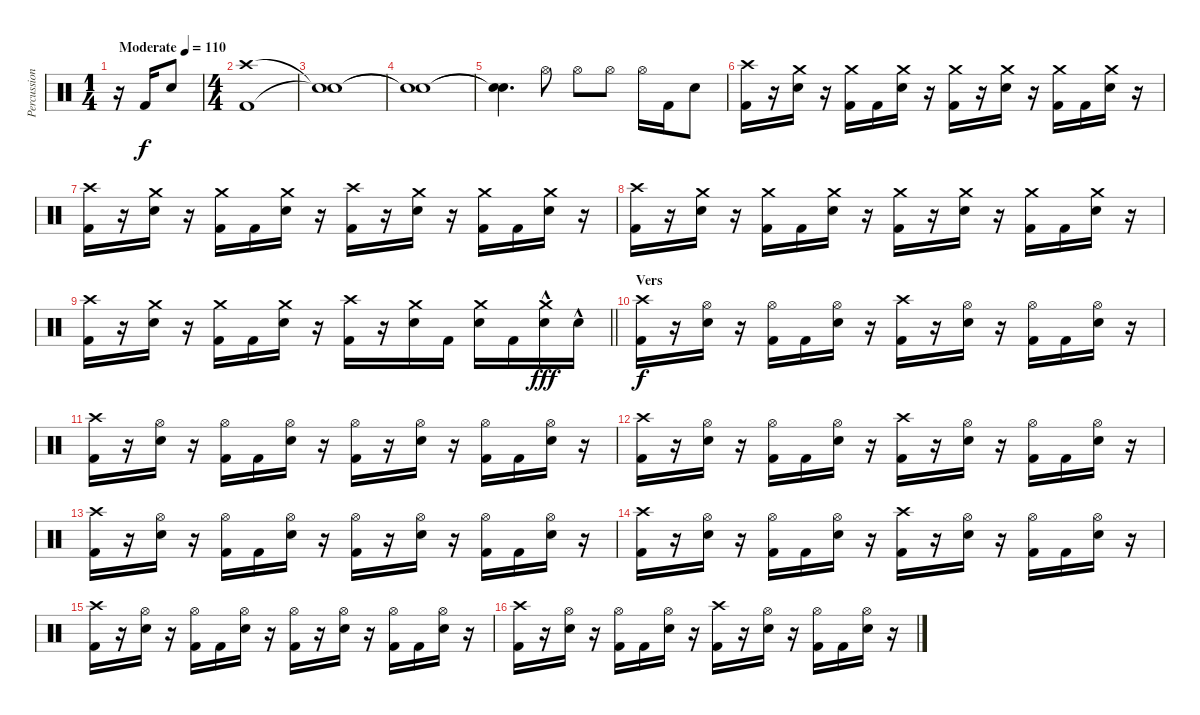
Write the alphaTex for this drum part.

\track ("Percussion" "Percussion") {instrument percussion}
\staff {score}
\articulation defaults
\ts (1 4)
\tempo (110 "Moderate")
\clef neutral
\ks c
r.16{dy f} "Kick (hit) 2".16 "Snare (hit) 2".8 |
\ts (4 4)
("Crash high (hit)" "Kick (hit) 2").1 |
("Snare (hit)"{t} "Snare (hit)"{t}).1 |
("Snare (hit)"{t} "Snare (hit)"{t}).1 |
("Snare (hit)"{t} "Snare (hit)"{t}).4{d} "Hi-Hat (open)".8 "Hi-Hat (open)".8 "Hi-Hat (open)".8 "Hi-Hat (open)".16 "Kick (hit) 2".16 "Snare (hit) 2".8 |
("Crash high (hit)" "Kick (hit) 2").16 r.16 ("Crash medium (hit)" "Snare (hit) 2").16 r.16 ("Crash medium (hit)" "Kick (hit) 2").16 "Kick (hit) 2".16 ("Crash medium (hit)" "Snare (hit) 2").16 r.16 ("Crash medium (hit)" "Kick (hit) 2").16 r.16 ("Crash medium (hit)" "Snare (hit) 2").16 r.16 ("Crash medium (hit)" "Kick (hit) 2").16 "Kick (hit) 2".16 ("Crash medium (hit)" "Snare (hit) 2").16 r.16 |
("Crash high (hit)" "Kick (hit) 2").16 r.16 ("Crash medium (hit)" "Snare (hit) 2").16 r.16 ("Crash medium (hit)" "Kick (hit) 2").16 "Kick (hit) 2".16 ("Crash medium (hit)" "Snare (hit) 2").16 r.16 ("Crash high (hit)" "Kick (hit) 2").16 r.16 ("Crash medium (hit)" "Snare (hit) 2").16 r.16 ("Crash medium (hit)" "Kick (hit) 2").16 "Kick (hit) 2".16 ("Crash medium (hit)" "Snare (hit) 2").16 r.16 |
("Crash high (hit)" "Kick (hit) 2").16 r.16 ("Crash medium (hit)" "Snare (hit) 2").16 r.16 ("Crash medium (hit)" "Kick (hit) 2").16 "Kick (hit) 2".16 ("Crash medium (hit)" "Snare (hit) 2").16 r.16 ("Crash medium (hit)" "Kick (hit) 2").16 r.16 ("Crash medium (hit)" "Snare (hit) 2").16 r.16 ("Crash medium (hit)" "Kick (hit) 2").16 "Kick (hit) 2".16 ("Crash medium (hit)" "Snare (hit) 2").16 r.16 |
\barLineRight lightlight
("Crash high (hit)" "Kick (hit) 2").16 r.16 ("Crash medium (hit)" "Snare (hit) 2").16 r.16 ("Crash medium (hit)" "Kick (hit) 2").16 "Kick (hit) 2".16 ("Crash medium (hit)" "Snare (hit) 2").16 r.16 ("Crash high (hit)" "Kick (hit) 2").16 r.16 ("Crash medium (hit)" "Snare (hit) 2").16 "Kick (hit) 2".16 ("Crash medium (hit)" "Snare (hit) 2").16 "Kick (hit) 2".16 ("Crash medium (hit)" "Snare (hit) 2"{hac}).16{dy fff} "Snare (hit) 2"{hac}.16 |
\section ("" "Vers")
("Crash high (hit)" "Kick (hit) 2").16{dy f} r.16 ("Hi-Hat (open)" "Snare (hit) 2").16 r.16 ("Hi-Hat (open)" "Kick (hit) 2").16 "Kick (hit) 2".16 ("Hi-Hat (open)" "Snare (hit) 2").16 r.16 ("Crash high (hit)" "Kick (hit) 2").16 r.16 ("Hi-Hat (open)" "Snare (hit) 2").16 r.16 ("Hi-Hat (open)" "Kick (hit) 2").16 "Kick (hit) 2".16 ("Hi-Hat (open)" "Snare (hit) 2").16 r.16 |
("Crash high (hit)" "Kick (hit) 2").16 r.16 ("Hi-Hat (open)" "Snare (hit) 2").16 r.16 ("Hi-Hat (open)" "Kick (hit) 2").16 "Kick (hit) 2".16 ("Hi-Hat (open)" "Snare (hit) 2").16 r.16 ("Hi-Hat (open)" "Kick (hit) 2").16 r.16 ("Hi-Hat (open)" "Snare (hit) 2").16 r.16 ("Hi-Hat (open)" "Kick (hit) 2").16 "Kick (hit) 2".16 ("Hi-Hat (open)" "Snare (hit) 2").16 r.16 |
("Crash high (hit)" "Kick (hit) 2").16 r.16 ("Hi-Hat (open)" "Snare (hit) 2").16 r.16 ("Hi-Hat (open)" "Kick (hit) 2").16 "Kick (hit) 2".16 ("Hi-Hat (open)" "Snare (hit) 2").16 r.16 ("Crash high (hit)" "Kick (hit) 2").16 r.16 ("Hi-Hat (open)" "Snare (hit) 2").16 r.16 ("Hi-Hat (open)" "Kick (hit) 2").16 "Kick (hit) 2".16 ("Hi-Hat (open)" "Snare (hit) 2").16 r.16 |
("Crash high (hit)" "Kick (hit) 2").16 r.16 ("Hi-Hat (open)" "Snare (hit) 2").16 r.16 ("Hi-Hat (open)" "Kick (hit) 2").16 "Kick (hit) 2".16 ("Hi-Hat (open)" "Snare (hit) 2").16 r.16 ("Hi-Hat (open)" "Kick (hit) 2").16 r.16 ("Hi-Hat (open)" "Snare (hit) 2").16 r.16 ("Hi-Hat (open)" "Kick (hit) 2").16 "Kick (hit) 2".16 ("Hi-Hat (open)" "Snare (hit) 2").16 r.16 |
("Crash high (hit)" "Kick (hit) 2").16 r.16 ("Hi-Hat (open)" "Snare (hit) 2").16 r.16 ("Hi-Hat (open)" "Kick (hit) 2").16 "Kick (hit) 2".16 ("Hi-Hat (open)" "Snare (hit) 2").16 r.16 ("Crash high (hit)" "Kick (hit) 2").16 r.16 ("Hi-Hat (open)" "Snare (hit) 2").16 r.16 ("Hi-Hat (open)" "Kick (hit) 2").16 "Kick (hit) 2".16 ("Hi-Hat (open)" "Snare (hit) 2").16 r.16 |
("Crash high (hit)" "Kick (hit) 2").16 r.16 ("Hi-Hat (open)" "Snare (hit) 2").16 r.16 ("Hi-Hat (open)" "Kick (hit) 2").16 "Kick (hit) 2".16 ("Hi-Hat (open)" "Snare (hit) 2").16 r.16 ("Hi-Hat (open)" "Kick (hit) 2").16 r.16 ("Hi-Hat (open)" "Snare (hit) 2").16 r.16 ("Hi-Hat (open)" "Kick (hit) 2").16 "Kick (hit) 2".16 ("Hi-Hat (open)" "Snare (hit) 2").16 r.16 |
("Crash high (hit)" "Kick (hit) 2").16 r.16 ("Hi-Hat (open)" "Snare (hit) 2").16 r.16 ("Hi-Hat (open)" "Kick (hit) 2").16 "Kick (hit) 2".16 ("Hi-Hat (open)" "Snare (hit) 2").16 r.16 ("Crash high (hit)" "Kick (hit) 2").16 r.16 ("Hi-Hat (open)" "Snare (hit) 2").16 r.16 ("Hi-Hat (open)" "Kick (hit) 2").16 "Kick (hit) 2".16 ("Hi-Hat (open)" "Snare (hit) 2").16 r.16
